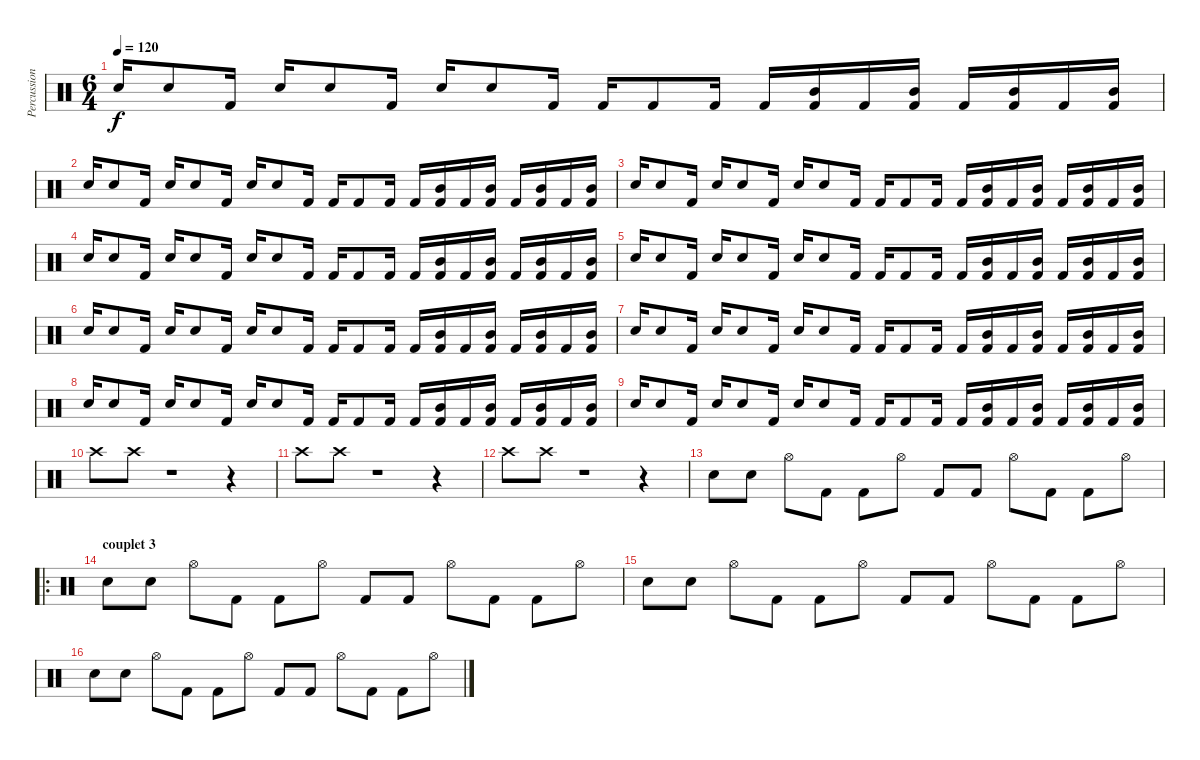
\track ("Percussion" "Percussion") {instrument percussion}
\staff {score}
\articulation defaults
\ts (6 4)
\tempo 120
\clef neutral
\ks c "Electric Snare (hit)".16{dy f} "Electric Snare (hit)".8 "Kick (hit) 2".16 "Electric Snare (hit)".16 "Electric Snare (hit)".8 "Kick (hit) 2".16 "Electric Snare (hit)".16 "Electric Snare (hit)".8 "Kick (hit) 2".16 "Kick (hit) 2".16 "Kick (hit) 2".8 "Kick (hit) 2".16 "Kick (hit) 2".16
("Mid Tom (hit)" "Kick (hit) 2").16 "Kick (hit) 2".16 ("Mid Tom (hit)" "Kick (hit) 2").16 "Kick (hit) 2".16 ("Mid Tom (hit)" "Kick (hit) 2").16 "Kick (hit) 2".16 ("Mid Tom (hit)" "Kick (hit) 2").16 |
"Electric Snare (hit)".16 "Electric Snare (hit)".8 "Kick (hit) 2".16 "Electric Snare (hit)".16 "Electric Snare (hit)".8 "Kick (hit) 2".16 "Electric Snare (hit)".16 "Electric Snare (hit)".8 "Kick (hit) 2".16 "Kick (hit) 2".16 "Kick (hit) 2".8 "Kick (hit) 2".16 "Kick (hit) 2".16 ("Mid Tom (hit)" "Kick (hit) 2").16 "Kick (hit) 2".16 ("Mid Tom (hit)" "Kick (hit) 2").16 "Kick (hit) 2".16 ("Mid Tom (hit)" "Kick (hit) 2").16 "Kick (hit) 2".16 ("Mid Tom (hit)" "Kick (hit) 2").16 |
"Electric Snare (hit)".16 "Electric Snare (hit)".8 "Kick (hit) 2".16 "Electric Snare (hit)".16 "Electric Snare (hit)".8 "Kick (hit) 2".16 "Electric Snare (hit)".16 "Electric Snare (hit)".8 "Kick (hit) 2".16 "Kick (hit) 2".16 "Kick (hit) 2".8 "Kick (hit) 2".16 "Kick (hit) 2".16 ("Mid Tom (hit)" "Kick (hit) 2").16 "Kick (hit) 2".16 ("Mid Tom (hit)" "Kick (hit) 2").16 "Kick (hit) 2".16 ("Mid Tom (hit)" "Kick (hit) 2").16 "Kick (hit) 2".16 ("Mid Tom (hit)" "Kick (hit) 2").16 |
"Electric Snare (hit)".16 "Electric Snare (hit)".8 "Kick (hit) 2".16 "Electric Snare (hit)".16 "Electric Snare (hit)".8 "Kick (hit) 2".16 "Electric Snare (hit)".16 "Electric Snare (hit)".8 "Kick (hit) 2".16 "Kick (hit) 2".16 "Kick (hit) 2".8 "Kick (hit) 2".16 "Kick (hit) 2".16 ("Mid Tom (hit)" "Kick (hit) 2").16 "Kick (hit) 2".16 ("Mid Tom (hit)" "Kick (hit) 2").16 "Kick (hit) 2".16 ("Mid Tom (hit)" "Kick (hit) 2").16 "Kick (hit) 2".16 ("Mid Tom (hit)" "Kick (hit) 2").16 |
"Electric Snare (hit)".16 "Electric Snare (hit)".8 "Kick (hit) 2".16 "Electric Snare (hit)".16 "Electric Snare (hit)".8 "Kick (hit) 2".16 "Electric Snare (hit)".16 "Electric Snare (hit)".8 "Kick (hit) 2".16 "Kick (hit) 2".16 "Kick (hit) 2".8 "Kick (hit) 2".16 "Kick (hit) 2".16 ("Mid Tom (hit)" "Kick (hit) 2").16 "Kick (hit) 2".16 ("Mid Tom (hit)" "Kick (hit) 2").16 "Kick (hit) 2".16 ("Mid Tom (hit)" "Kick (hit) 2").16 "Kick (hit) 2".16 ("Mid Tom (hit)" "Kick (hit) 2").16 |
"Electric Snare (hit)".16 "Electric Snare (hit)".8 "Kick (hit) 2".16 "Electric Snare (hit)".16 "Electric Snare (hit)".8 "Kick (hit) 2".16 "Electric Snare (hit)".16 "Electric Snare (hit)".8 "Kick (hit) 2".16 "Kick (hit) 2".16 "Kick (hit) 2".8 "Kick (hit) 2".16 "Kick (hit) 2".16 ("Mid Tom (hit)" "Kick (hit) 2").16 "Kick (hit) 2".16 ("Mid Tom (hit)" "Kick (hit) 2").16 "Kick (hit) 2".16 ("Mid Tom (hit)" "Kick (hit) 2").16 "Kick (hit) 2".16 ("Mid Tom (hit)" "Kick (hit) 2").16 |
"Electric Snare (hit)".16 "Electric Snare (hit)".8 "Kick (hit) 2".16 "Electric Snare (hit)".16 "Electric Snare (hit)".8 "Kick (hit) 2".16 "Electric Snare (hit)".16 "Electric Snare (hit)".8 "Kick (hit) 2".16 "Kick (hit) 2".16 "Kick (hit) 2".8 "Kick (hit) 2".16 "Kick (hit) 2".16 ("Mid Tom (hit)" "Kick (hit) 2").16 "Kick (hit) 2".16 ("Mid Tom (hit)" "Kick (hit) 2").16 "Kick (hit) 2".16 ("Mid Tom (hit)" "Kick (hit) 2").16 "Kick (hit) 2".16 ("Mid Tom (hit)" "Kick (hit) 2").16 |
"Electric Snare (hit)".16 "Electric Snare (hit)".8 "Kick (hit) 2".16 "Electric Snare (hit)".16 "Electric Snare (hit)".8 "Kick (hit) 2".16 "Electric Snare (hit)".16 "Electric Snare (hit)".8 "Kick (hit) 2".16 "Kick (hit) 2".16 "Kick (hit) 2".8 "Kick (hit) 2".16 "Kick (hit) 2".16 ("Mid Tom (hit)" "Kick (hit) 2").16 "Kick (hit) 2".16 ("Mid Tom (hit)" "Kick (hit) 2").16 "Kick (hit) 2".16 ("Mid Tom (hit)" "Kick (hit) 2").16 "Kick (hit) 2".16 ("Mid Tom (hit)" "Kick (hit) 2").16 |
"Electric Snare (hit)".16 "Electric Snare (hit)".8 "Kick (hit) 2".16 "Electric Snare (hit)".16 "Electric Snare (hit)".8 "Kick (hit) 2".16 "Electric Snare (hit)".16 "Electric Snare (hit)".8 "Kick (hit) 2".16 "Kick (hit) 2".16 "Kick (hit) 2".8 "Kick (hit) 2".16 "Kick (hit) 2".16 ("Mid Tom (hit)" "Kick (hit) 2").16 "Kick (hit) 2".16 ("Mid Tom (hit)" "Kick (hit) 2").16 "Kick (hit) 2".16 ("Mid Tom (hit)" "Kick (hit) 2").16 "Kick (hit) 2".16 ("Mid Tom (hit)" "Kick (hit) 2").16 |
"Crash high (hit)".8 "Crash high (hit)".8 r.1 r.4 |
"Crash high (hit)".8 "Crash high (hit)".8 r.1 r.4 |
"Crash high (hit)".8 "Crash high (hit)".8 r.1 r.4 |
"Electric Snare (hit)".8 "Electric Snare (hit)".8 "Hi-Hat (open)".8 "Kick (hit) 2".8 "Kick (hit) 2".8 "Hi-Hat (open)".8 "Kick (hit) 2".8 "Kick (hit) 2".8 "Hi-Hat (open)".8 "Kick (hit) 2".8 "Kick (hit) 2".8 "Hi-Hat (open)".8 |
\ro
\section ("" "couplet 3")
"Electric Snare (hit)".8 "Electric Snare (hit)".8 "Hi-Hat (open)".8 "Kick (hit) 2".8 "Kick (hit) 2".8 "Hi-Hat (open)".8 "Kick (hit) 2".8 "Kick (hit) 2".8 "Hi-Hat (open)".8 "Kick (hit) 2".8 "Kick (hit) 2".8 "Hi-Hat (open)".8 |
"Electric Snare (hit)".8 "Electric Snare (hit)".8 "Hi-Hat (open)".8 "Kick (hit) 2".8 "Kick (hit) 2".8 "Hi-Hat (open)".8 "Kick (hit) 2".8 "Kick (hit) 2".8 "Hi-Hat (open)".8 "Kick (hit) 2".8 "Kick (hit) 2".8 "Hi-Hat (open)".8 |
"Electric Snare (hit)".8 "Electric Snare (hit)".8 "Hi-Hat (open)".8 "Kick (hit) 2".8 "Kick (hit) 2".8 "Hi-Hat (open)".8 "Kick (hit) 2".8 "Kick (hit) 2".8 "Hi-Hat (open)".8 "Kick (hit) 2".8 "Kick (hit) 2".8 "Hi-Hat (open)".8
